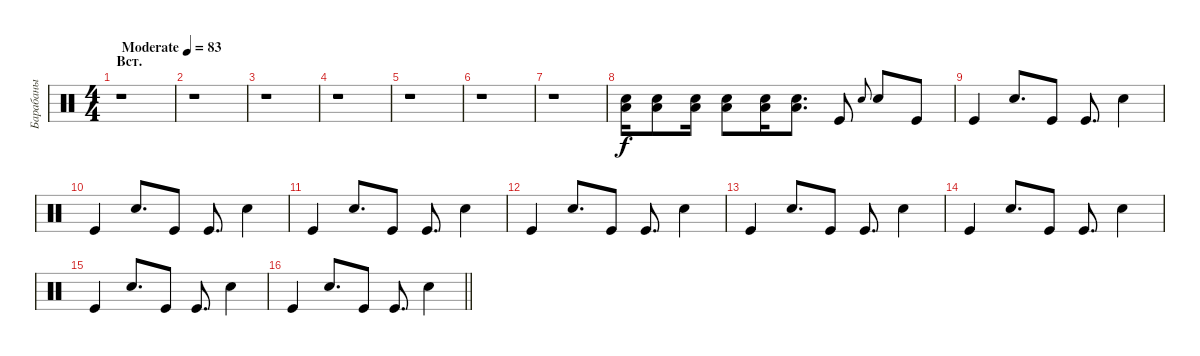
\track ("Барабаны" "Барабаны") {instrument percussion}
\staff {score}
\articulation defaults
\ts (4 4)
\section ("" "Вст.")
\tempo (83 "Moderate")
\clef neutral
\ks c
r.1{dy f} |
r.1 |
r.1 |
r.1 |
r.1 |
r.1 |
r.1 |
("Snare (hit) 2" "Low Tom (hit)").16 ("Snare (hit) 2" "Low Tom (hit)").8 ("Snare (hit) 2" "Low Tom (hit)").16 ("Snare (hit) 2" "Low Tom (hit)").8 ("Snare (hit) 2" "Low Tom (hit)").16 ("Snare (hit) 2" "Low Tom (hit)").8{d} "Kick (hit)".8 "Snare (hit) 2".8{gr onbeat} "Snare (hit) 2".8 "Kick (hit)".8 |
"Kick (hit)".4 "Snare (hit) 2".8{d} "Kick (hit)".8 "Kick (hit)".8{d} "Snare (hit) 2".4 |
"Kick (hit)".4 "Snare (hit) 2".8{d} "Kick (hit)".8 "Kick (hit)".8{d} "Snare (hit) 2".4 |
"Kick (hit)".4 "Snare (hit) 2".8{d} "Kick (hit)".8 "Kick (hit)".8{d} "Snare (hit) 2".4 |
"Kick (hit)".4 "Snare (hit) 2".8{d} "Kick (hit)".8 "Kick (hit)".8{d} "Snare (hit) 2".4 |
"Kick (hit)".4 "Snare (hit) 2".8{d} "Kick (hit)".8 "Kick (hit)".8{d} "Snare (hit) 2".4 |
"Kick (hit)".4 "Snare (hit) 2".8{d} "Kick (hit)".8 "Kick (hit)".8{d} "Snare (hit) 2".4 |
"Kick (hit)".4 "Snare (hit) 2".8{d} "Kick (hit)".8 "Kick (hit)".8{d} "Snare (hit) 2".4 |
\barLineRight lightlight "Kick (hit)".4 "Snare (hit) 2".8{d} "Kick (hit)".8 "Kick (hit)".8{d} "Snare (hit) 2".4
